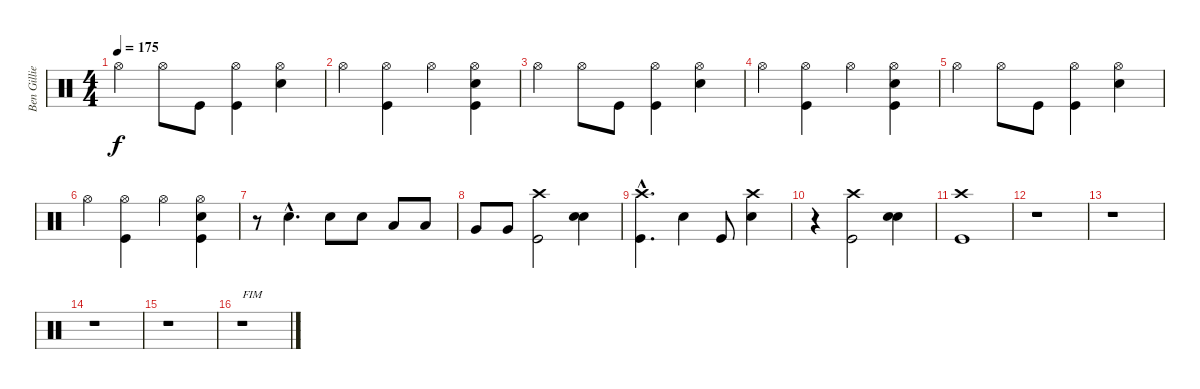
\track ("Ben Gillies" "Ben Gillie") {instrument percussion}
\staff {score}
\articulation defaults
\ts (4 4)
\tempo 175
\clef neutral
\ks c "Hi-Hat (open)".4{dy f} "Hi-Hat (open)".8 "Kick (hit)".8
("Kick (hit)" "Hi-Hat (open)").4 ("Snare (hit) 2" "Hi-Hat (open)").4 |
"Hi-Hat (open)".4 ("Kick (hit)" "Hi-Hat (open)").4 "Hi-Hat (open)".4 ("Kick (hit)" "Snare (hit) 2" "Hi-Hat (open)").4 |
"Hi-Hat (open)".4 "Hi-Hat (open)".8 "Kick (hit)".8 ("Kick (hit)" "Hi-Hat (open)").4 ("Snare (hit) 2" "Hi-Hat (open)").4 |
"Hi-Hat (open)".4 ("Kick (hit)" "Hi-Hat (open)").4 "Hi-Hat (open)".4 ("Kick (hit)" "Snare (hit) 2" "Hi-Hat (open)").4 |
"Hi-Hat (open)".4 "Hi-Hat (open)".8 "Kick (hit)".8 ("Kick (hit)" "Hi-Hat (open)").4 ("Snare (hit) 2" "Hi-Hat (open)").4 |
"Hi-Hat (open)".4 ("Kick (hit)" "Hi-Hat (open)").4 "Hi-Hat (open)".4 ("Kick (hit)" "Snare (hit) 2" "Hi-Hat (open)").4 |
r.8 "Snare (hit) 2"{hac}.4{d} "Snare (hit) 2".8 "Snare (hit) 2".8 "Low Tom (hit)".8 "Low Tom (hit)".8 |
"Very Low Tom (hit)".8 "Very Low Tom (hit)".8 ("Kick (hit)" "Crash high (hit)").2 ("Snare (hit) 2" "Snare (hit) 2").4{bu 120} |
("Kick (hit)"{hac} "Crash high (hit)"{hac}).4{d} "Snare (hit) 2".4 "Kick (hit)".8 ("Snare (hit) 2" "Crash high (hit)").4 |
r.4 ("Kick (hit)" "Crash high (hit)").2 ("Snare (hit) 2" "Snare (hit) 2").4{bu 120} |
("Kick (hit)" "Crash high (hit)").1 |
r.1 |
r.1 |
r.1 |
r.1 |
r.1{txt "FIM"}
